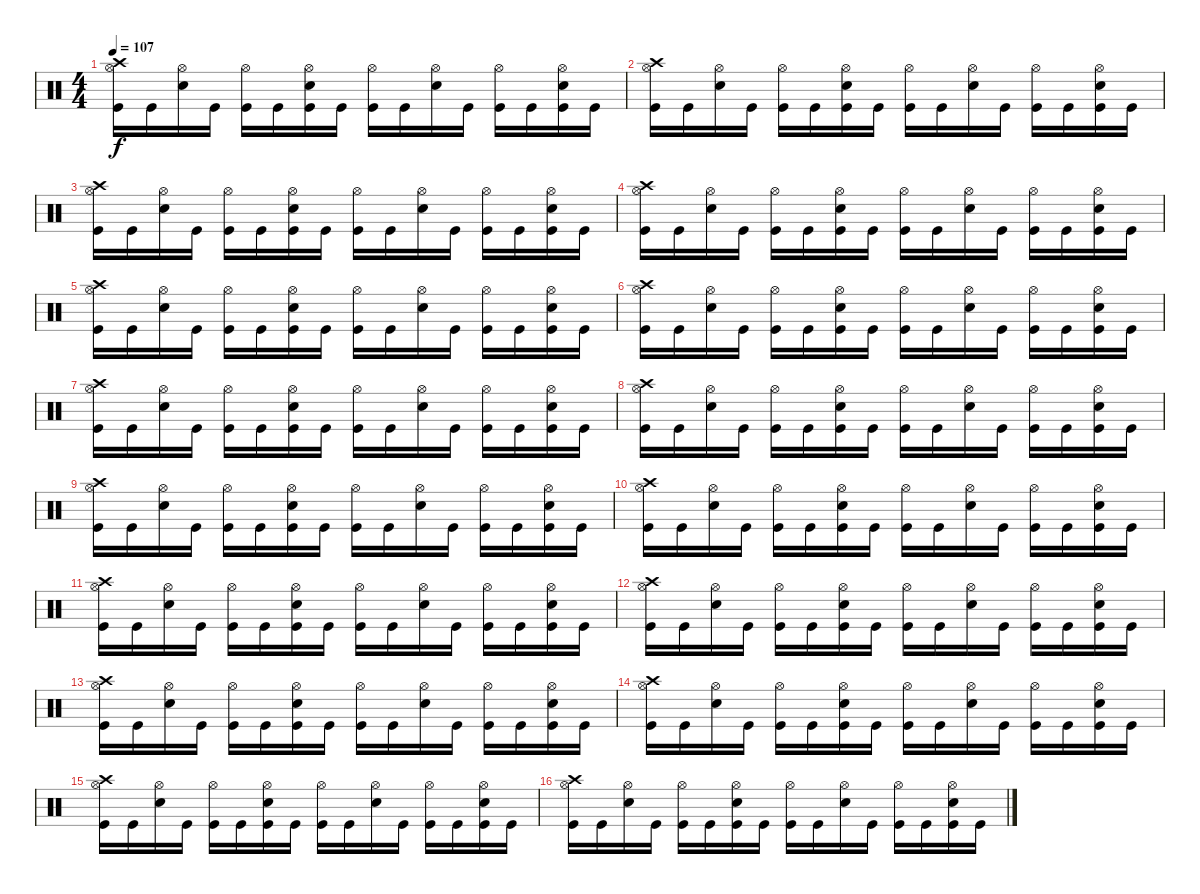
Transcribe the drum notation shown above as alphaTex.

\track "" {instrument percussion}
\staff {score}
\articulation defaults
\ts (4 4)
\tempo 107
\clef neutral
\ks c
("Hi-Hat (open)" "Crash high (hit)" "Kick (hit)").16{dy f} "Kick (hit)".16 ("Hi-Hat (open)" "Snare (hit) 2").16 "Kick (hit)".16 ("Hi-Hat (open)" "Kick (hit)").16 "Kick (hit)".16 ("Hi-Hat (open)" "Snare (hit) 2" "Kick (hit)").16 "Kick (hit)".16 ("Hi-Hat (open)" "Kick (hit)").16 "Kick (hit)".16 ("Hi-Hat (open)" "Snare (hit) 2").16 "Kick (hit)".16 ("Hi-Hat (open)" "Kick (hit)").16 "Kick (hit)".16 ("Hi-Hat (open)" "Snare (hit) 2" "Kick (hit)").16 "Kick (hit)".16 |
("Hi-Hat (open)" "Crash high (hit)" "Kick (hit)").16 "Kick (hit)".16 ("Hi-Hat (open)" "Snare (hit) 2").16 "Kick (hit)".16 ("Hi-Hat (open)" "Kick (hit)").16 "Kick (hit)".16 ("Hi-Hat (open)" "Snare (hit) 2" "Kick (hit)").16 "Kick (hit)".16 ("Hi-Hat (open)" "Kick (hit)").16 "Kick (hit)".16 ("Hi-Hat (open)" "Snare (hit) 2").16 "Kick (hit)".16 ("Hi-Hat (open)" "Kick (hit)").16 "Kick (hit)".16 ("Hi-Hat (open)" "Snare (hit) 2" "Kick (hit)").16 "Kick (hit)".16 |
("Hi-Hat (open)" "Crash high (hit)" "Kick (hit)").16 "Kick (hit)".16 ("Hi-Hat (open)" "Snare (hit) 2").16 "Kick (hit)".16 ("Hi-Hat (open)" "Kick (hit)").16 "Kick (hit)".16 ("Hi-Hat (open)" "Snare (hit) 2" "Kick (hit)").16 "Kick (hit)".16 ("Hi-Hat (open)" "Kick (hit)").16 "Kick (hit)".16 ("Hi-Hat (open)" "Snare (hit) 2").16 "Kick (hit)".16 ("Hi-Hat (open)" "Kick (hit)").16 "Kick (hit)".16 ("Hi-Hat (open)" "Snare (hit) 2" "Kick (hit)").16 "Kick (hit)".16 |
("Hi-Hat (open)" "Crash high (hit)" "Kick (hit)").16 "Kick (hit)".16 ("Hi-Hat (open)" "Snare (hit) 2").16 "Kick (hit)".16 ("Hi-Hat (open)" "Kick (hit)").16 "Kick (hit)".16 ("Hi-Hat (open)" "Snare (hit) 2" "Kick (hit)").16 "Kick (hit)".16 ("Hi-Hat (open)" "Kick (hit)").16 "Kick (hit)".16 ("Hi-Hat (open)" "Snare (hit) 2").16 "Kick (hit)".16 ("Hi-Hat (open)" "Kick (hit)").16 "Kick (hit)".16 ("Hi-Hat (open)" "Snare (hit) 2" "Kick (hit)").16 "Kick (hit)".16 |
("Hi-Hat (open)" "Crash high (hit)" "Kick (hit)").16 "Kick (hit)".16 ("Hi-Hat (open)" "Snare (hit) 2").16 "Kick (hit)".16 ("Hi-Hat (open)" "Kick (hit)").16 "Kick (hit)".16 ("Hi-Hat (open)" "Snare (hit) 2" "Kick (hit)").16 "Kick (hit)".16 ("Hi-Hat (open)" "Kick (hit)").16 "Kick (hit)".16 ("Hi-Hat (open)" "Snare (hit) 2").16 "Kick (hit)".16 ("Hi-Hat (open)" "Kick (hit)").16 "Kick (hit)".16 ("Hi-Hat (open)" "Snare (hit) 2" "Kick (hit)").16 "Kick (hit)".16 |
("Hi-Hat (open)" "Crash high (hit)" "Kick (hit)").16 "Kick (hit)".16 ("Hi-Hat (open)" "Snare (hit) 2").16 "Kick (hit)".16 ("Hi-Hat (open)" "Kick (hit)").16 "Kick (hit)".16 ("Hi-Hat (open)" "Snare (hit) 2" "Kick (hit)").16 "Kick (hit)".16 ("Hi-Hat (open)" "Kick (hit)").16 "Kick (hit)".16 ("Hi-Hat (open)" "Snare (hit) 2").16 "Kick (hit)".16 ("Hi-Hat (open)" "Kick (hit)").16 "Kick (hit)".16 ("Hi-Hat (open)" "Snare (hit) 2" "Kick (hit)").16 "Kick (hit)".16 |
("Hi-Hat (open)" "Crash high (hit)" "Kick (hit)").16 "Kick (hit)".16 ("Hi-Hat (open)" "Snare (hit) 2").16 "Kick (hit)".16 ("Hi-Hat (open)" "Kick (hit)").16 "Kick (hit)".16 ("Hi-Hat (open)" "Snare (hit) 2" "Kick (hit)").16 "Kick (hit)".16 ("Hi-Hat (open)" "Kick (hit)").16 "Kick (hit)".16 ("Hi-Hat (open)" "Snare (hit) 2").16 "Kick (hit)".16 ("Hi-Hat (open)" "Kick (hit)").16 "Kick (hit)".16 ("Hi-Hat (open)" "Snare (hit) 2" "Kick (hit)").16 "Kick (hit)".16 |
("Hi-Hat (open)" "Crash high (hit)" "Kick (hit)").16 "Kick (hit)".16 ("Hi-Hat (open)" "Snare (hit) 2").16 "Kick (hit)".16 ("Hi-Hat (open)" "Kick (hit)").16 "Kick (hit)".16 ("Hi-Hat (open)" "Snare (hit) 2" "Kick (hit)").16 "Kick (hit)".16 ("Hi-Hat (open)" "Kick (hit)").16 "Kick (hit)".16 ("Hi-Hat (open)" "Snare (hit) 2").16 "Kick (hit)".16 ("Hi-Hat (open)" "Kick (hit)").16 "Kick (hit)".16 ("Hi-Hat (open)" "Snare (hit) 2" "Kick (hit)").16 "Kick (hit)".16 |
("Hi-Hat (open)" "Crash high (hit)" "Kick (hit)").16 "Kick (hit)".16 ("Hi-Hat (open)" "Snare (hit) 2").16 "Kick (hit)".16 ("Hi-Hat (open)" "Kick (hit)").16 "Kick (hit)".16 ("Hi-Hat (open)" "Snare (hit) 2" "Kick (hit)").16 "Kick (hit)".16 ("Hi-Hat (open)" "Kick (hit)").16 "Kick (hit)".16 ("Hi-Hat (open)" "Snare (hit) 2").16 "Kick (hit)".16 ("Hi-Hat (open)" "Kick (hit)").16 "Kick (hit)".16 ("Hi-Hat (open)" "Snare (hit) 2" "Kick (hit)").16 "Kick (hit)".16 |
("Hi-Hat (open)" "Crash high (hit)" "Kick (hit)").16 "Kick (hit)".16 ("Hi-Hat (open)" "Snare (hit) 2").16 "Kick (hit)".16 ("Hi-Hat (open)" "Kick (hit)").16 "Kick (hit)".16 ("Hi-Hat (open)" "Snare (hit) 2" "Kick (hit)").16 "Kick (hit)".16 ("Hi-Hat (open)" "Kick (hit)").16 "Kick (hit)".16 ("Hi-Hat (open)" "Snare (hit) 2").16 "Kick (hit)".16 ("Hi-Hat (open)" "Kick (hit)").16 "Kick (hit)".16 ("Hi-Hat (open)" "Snare (hit) 2" "Kick (hit)").16 "Kick (hit)".16 |
("Hi-Hat (open)" "Crash high (hit)" "Kick (hit)").16 "Kick (hit)".16 ("Hi-Hat (open)" "Snare (hit) 2").16 "Kick (hit)".16 ("Hi-Hat (open)" "Kick (hit)").16 "Kick (hit)".16 ("Hi-Hat (open)" "Snare (hit) 2" "Kick (hit)").16 "Kick (hit)".16 ("Hi-Hat (open)" "Kick (hit)").16 "Kick (hit)".16 ("Hi-Hat (open)" "Snare (hit) 2").16 "Kick (hit)".16 ("Hi-Hat (open)" "Kick (hit)").16 "Kick (hit)".16 ("Hi-Hat (open)" "Snare (hit) 2" "Kick (hit)").16 "Kick (hit)".16 |
("Hi-Hat (open)" "Crash high (hit)" "Kick (hit)").16 "Kick (hit)".16 ("Hi-Hat (open)" "Snare (hit) 2").16 "Kick (hit)".16 ("Hi-Hat (open)" "Kick (hit)").16 "Kick (hit)".16 ("Hi-Hat (open)" "Snare (hit) 2" "Kick (hit)").16 "Kick (hit)".16 ("Hi-Hat (open)" "Kick (hit)").16 "Kick (hit)".16 ("Hi-Hat (open)" "Snare (hit) 2").16 "Kick (hit)".16 ("Hi-Hat (open)" "Kick (hit)").16 "Kick (hit)".16 ("Hi-Hat (open)" "Snare (hit) 2" "Kick (hit)").16 "Kick (hit)".16 |
("Hi-Hat (open)" "Crash high (hit)" "Kick (hit)").16 "Kick (hit)".16 ("Hi-Hat (open)" "Snare (hit) 2").16 "Kick (hit)".16 ("Hi-Hat (open)" "Kick (hit)").16 "Kick (hit)".16 ("Hi-Hat (open)" "Snare (hit) 2" "Kick (hit)").16 "Kick (hit)".16 ("Hi-Hat (open)" "Kick (hit)").16 "Kick (hit)".16 ("Hi-Hat (open)" "Snare (hit) 2").16 "Kick (hit)".16 ("Hi-Hat (open)" "Kick (hit)").16 "Kick (hit)".16 ("Hi-Hat (open)" "Snare (hit) 2" "Kick (hit)").16 "Kick (hit)".16 |
("Hi-Hat (open)" "Crash high (hit)" "Kick (hit)").16 "Kick (hit)".16 ("Hi-Hat (open)" "Snare (hit) 2").16 "Kick (hit)".16 ("Hi-Hat (open)" "Kick (hit)").16 "Kick (hit)".16 ("Hi-Hat (open)" "Snare (hit) 2" "Kick (hit)").16 "Kick (hit)".16 ("Hi-Hat (open)" "Kick (hit)").16 "Kick (hit)".16 ("Hi-Hat (open)" "Snare (hit) 2").16 "Kick (hit)".16 ("Hi-Hat (open)" "Kick (hit)").16 "Kick (hit)".16 ("Hi-Hat (open)" "Snare (hit) 2" "Kick (hit)").16 "Kick (hit)".16 |
("Hi-Hat (open)" "Crash high (hit)" "Kick (hit)").16 "Kick (hit)".16 ("Hi-Hat (open)" "Snare (hit) 2").16 "Kick (hit)".16 ("Hi-Hat (open)" "Kick (hit)").16 "Kick (hit)".16 ("Hi-Hat (open)" "Snare (hit) 2" "Kick (hit)").16 "Kick (hit)".16 ("Hi-Hat (open)" "Kick (hit)").16 "Kick (hit)".16 ("Hi-Hat (open)" "Snare (hit) 2").16 "Kick (hit)".16 ("Hi-Hat (open)" "Kick (hit)").16 "Kick (hit)".16 ("Hi-Hat (open)" "Snare (hit) 2" "Kick (hit)").16 "Kick (hit)".16 |
("Hi-Hat (open)" "Crash high (hit)" "Kick (hit)").16 "Kick (hit)".16 ("Hi-Hat (open)" "Snare (hit) 2").16 "Kick (hit)".16 ("Hi-Hat (open)" "Kick (hit)").16 "Kick (hit)".16 ("Hi-Hat (open)" "Snare (hit) 2" "Kick (hit)").16 "Kick (hit)".16 ("Hi-Hat (open)" "Kick (hit)").16 "Kick (hit)".16 ("Hi-Hat (open)" "Snare (hit) 2").16 "Kick (hit)".16 ("Hi-Hat (open)" "Kick (hit)").16 "Kick (hit)".16 ("Hi-Hat (open)" "Snare (hit) 2" "Kick (hit)").16 "Kick (hit)".16
